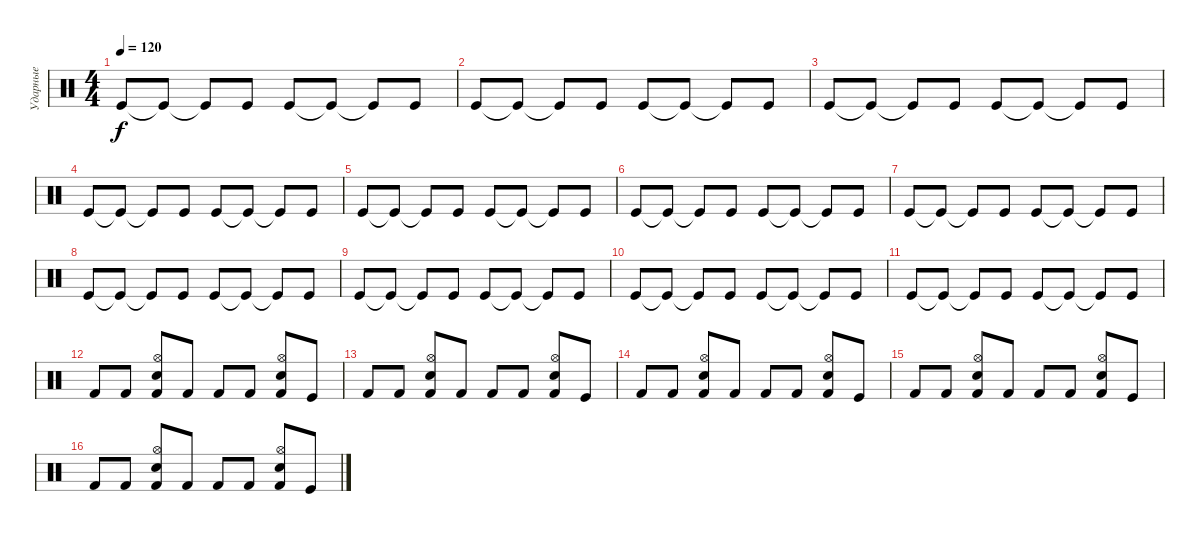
\track ("Ударные" "Ударные") {instrument percussion}
\staff {score}
\articulation defaults
\ts (4 4)
\tempo 120
\clef neutral
\ks c "Kick (hit)".8{dy f} "Kick (hit)"{t}.8 "Kick (hit)"{t}.8 "Kick (hit)".8 "Kick (hit)".8 "Kick (hit)"{t}.8 "Kick (hit)"{t}.8 "Kick (hit)".8
|
"Kick (hit)".8 "Kick (hit)"{t}.8 "Kick (hit)"{t}.8 "Kick (hit)".8 "Kick (hit)".8 "Kick (hit)"{t}.8 "Kick (hit)"{t}.8 "Kick (hit)".8 |
"Kick (hit)".8 "Kick (hit)"{t}.8 "Kick (hit)"{t}.8 "Kick (hit)".8 "Kick (hit)".8 "Kick (hit)"{t}.8 "Kick (hit)"{t}.8 "Kick (hit)".8 |
"Kick (hit)".8 "Kick (hit)"{t}.8 "Kick (hit)"{t}.8 "Kick (hit)".8 "Kick (hit)".8 "Kick (hit)"{t}.8 "Kick (hit)"{t}.8 "Kick (hit)".8 |
"Kick (hit)".8 "Kick (hit)"{t}.8 "Kick (hit)"{t}.8 "Kick (hit)".8 "Kick (hit)".8 "Kick (hit)"{t}.8 "Kick (hit)"{t}.8 "Kick (hit)".8 |
"Kick (hit)".8 "Kick (hit)"{t}.8 "Kick (hit)"{t}.8 "Kick (hit)".8 "Kick (hit)".8 "Kick (hit)"{t}.8 "Kick (hit)"{t}.8 "Kick (hit)".8 |
"Kick (hit)".8 "Kick (hit)"{t}.8 "Kick (hit)"{t}.8 "Kick (hit)".8 "Kick (hit)".8 "Kick (hit)"{t}.8 "Kick (hit)"{t}.8 "Kick (hit)".8 |
"Kick (hit)".8 "Kick (hit)"{t}.8 "Kick (hit)"{t}.8 "Kick (hit)".8 "Kick (hit)".8 "Kick (hit)"{t}.8 "Kick (hit)"{t}.8 "Kick (hit)".8 |
"Kick (hit)".8 "Kick (hit)"{t}.8 "Kick (hit)"{t}.8 "Kick (hit)".8 "Kick (hit)".8 "Kick (hit)"{t}.8 "Kick (hit)"{t}.8 "Kick (hit)".8 |
"Kick (hit)".8 "Kick (hit)"{t}.8 "Kick (hit)"{t}.8 "Kick (hit)".8 "Kick (hit)".8 "Kick (hit)"{t}.8 "Kick (hit)"{t}.8 "Kick (hit)".8 |
"Kick (hit)".8 "Kick (hit)"{t}.8 "Kick (hit)"{t}.8 "Kick (hit)".8 "Kick (hit)".8 "Kick (hit)"{t}.8 "Kick (hit)"{t}.8 "Kick (hit)".8 |
"Kick (hit) 2".8 "Kick (hit) 2".8 ("Kick (hit) 2" "Hi-Hat (open)" "Snare (hit) 2").8 "Kick (hit) 2".8 "Kick (hit) 2".8 "Kick (hit) 2".8 ("Kick (hit) 2" "Hi-Hat (open)" "Snare (hit) 2").8 "Kick (hit)".8 |
"Kick (hit) 2".8 "Kick (hit) 2".8 ("Kick (hit) 2" "Hi-Hat (open)" "Snare (hit) 2").8 "Kick (hit) 2".8 "Kick (hit) 2".8 "Kick (hit) 2".8 ("Kick (hit) 2" "Hi-Hat (open)" "Snare (hit) 2").8 "Kick (hit)".8 |
"Kick (hit) 2".8 "Kick (hit) 2".8 ("Kick (hit) 2" "Hi-Hat (open)" "Snare (hit) 2").8 "Kick (hit) 2".8 "Kick (hit) 2".8 "Kick (hit) 2".8 ("Kick (hit) 2" "Hi-Hat (open)" "Snare (hit) 2").8 "Kick (hit)".8 |
"Kick (hit) 2".8 "Kick (hit) 2".8 ("Kick (hit) 2" "Hi-Hat (open)" "Snare (hit) 2").8 "Kick (hit) 2".8 "Kick (hit) 2".8 "Kick (hit) 2".8 ("Kick (hit) 2" "Hi-Hat (open)" "Snare (hit) 2").8 "Kick (hit)".8 |
"Kick (hit) 2".8 "Kick (hit) 2".8 ("Kick (hit) 2" "Hi-Hat (open)" "Snare (hit) 2").8 "Kick (hit) 2".8 "Kick (hit) 2".8 "Kick (hit) 2".8 ("Kick (hit) 2" "Hi-Hat (open)" "Snare (hit) 2").8 "Kick (hit)".8
